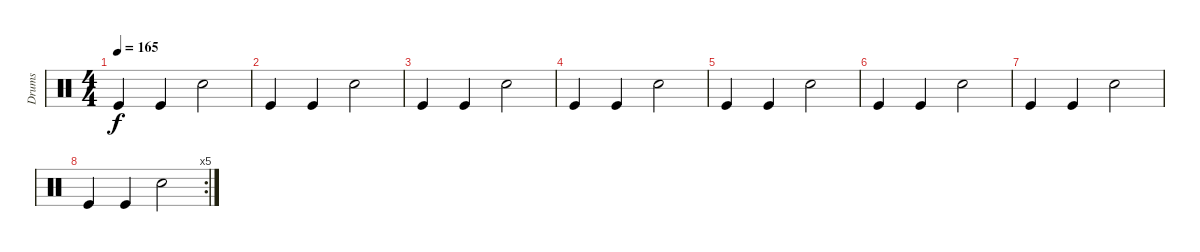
\track ("Drums" "Drums") {instrument percussion}
\staff {score}
\articulation defaults
\ts (4 4)
\tempo 165
\clef neutral
\ks c "Kick (hit)".4{dy f} "Kick (hit)".4 "Snare (hit) 2".2
|
"Kick (hit)".4 "Kick (hit)".4 "Snare (hit) 2".2 |
"Kick (hit)".4 "Kick (hit)".4 "Snare (hit) 2".2 |
"Kick (hit)".4 "Kick (hit)".4 "Snare (hit) 2".2 |
"Kick (hit)".4 "Kick (hit)".4 "Snare (hit) 2".2 |
"Kick (hit)".4 "Kick (hit)".4 "Snare (hit) 2".2 |
"Kick (hit)".4 "Kick (hit)".4 "Snare (hit) 2".2 |
\rc 5 "Kick (hit)".4 "Kick (hit)".4 "Snare (hit) 2".2
